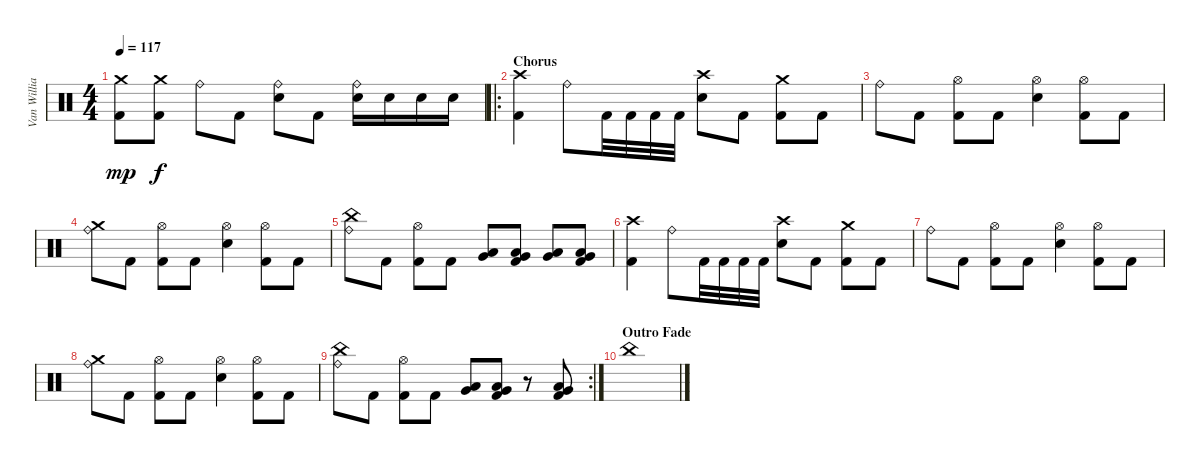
\track ("Van Williams" "Van Willia") {instrument percussion}
\staff {score}
\articulation defaults
\ts (4 4)
\tempo 117
\clef neutral
\ks c
("Crash medium (hit)" "Kick (hit) 2").8{dy mp} ("Crash medium (hit)" "Kick (hit) 2").8{dy f} "Ride (bell)".8 "Kick (hit) 2".8 ("Ride (bell)" "Electric Snare (hit)").8 "Kick (hit) 2".8 ("Ride (bell)" "Electric Snare (hit)").16 "Electric Snare (hit)".16 "Electric Snare (hit)".16 "Electric Snare (hit)".16 |
\ro
\section ("" "Chorus")
("Crash high (hit)" "Kick (hit) 2").4 "Ride (bell)".8 "Kick (hit) 2".32 "Kick (hit) 2".32 "Kick (hit) 2".32 "Kick (hit) 2".32 ("Crash high (hit)" "Electric Snare (hit)").8 "Kick (hit) 2".8 ("Crash medium (hit)" "Kick (hit) 2").8 "Kick (hit) 2".8 |
"Ride (bell)".8 "Kick (hit) 2".8 ("Hi-Hat (open)" "Kick (hit) 2").8 "Kick (hit) 2".8 ("Hi-Hat (open)" "Electric Snare (hit)").4 ("Hi-Hat (open)" "Kick (hit) 2").8 "Kick (hit) 2".8 |
("Ride (bell)" "Crash medium (hit)").8 "Kick (hit) 2".8 ("Hi-Hat (open)" "Kick (hit) 2").8 "Kick (hit) 2".8 ("Hi-Hat (open)" "Electric Snare (hit)").4 ("Hi-Hat (open)" "Kick (hit) 2").8 "Kick (hit) 2".8 |
("Ride (bell)" "China (hit)").8 "Kick (hit) 2".8 ("Hi-Hat (open)" "Kick (hit) 2").8 "Kick (hit) 2".8 ("Low Floor Tom (hit)" "Very Low Tom (hit)").8 ("Low Floor Tom (hit)" "Very Low Tom (hit)" "Kick (hit) 2").8 ("Low Floor Tom (hit)" "Very Low Tom (hit)").8 ("Low Floor Tom (hit)" "Very Low Tom (hit)" "Kick (hit) 2").8 |
("Crash high (hit)" "Kick (hit) 2").4 "Ride (bell)".8 "Kick (hit) 2".32 "Kick (hit) 2".32 "Kick (hit) 2".32 "Kick (hit) 2".32 ("Crash high (hit)" "Electric Snare (hit)").8 "Kick (hit) 2".8 ("Crash medium (hit)" "Kick (hit) 2").8 "Kick (hit) 2".8 |
"Ride (bell)".8 "Kick (hit) 2".8 ("Hi-Hat (open)" "Kick (hit) 2").8 "Kick (hit) 2".8 ("Hi-Hat (open)" "Electric Snare (hit)").4 ("Hi-Hat (open)" "Kick (hit) 2").8 "Kick (hit) 2".8 |
("Ride (bell)" "Crash medium (hit)").8 "Kick (hit) 2".8 ("Hi-Hat (open)" "Kick (hit) 2").8 "Kick (hit) 2".8 ("Hi-Hat (open)" "Electric Snare (hit)").4 ("Hi-Hat (open)" "Kick (hit) 2").8 "Kick (hit) 2".8 |
\rc 2
("Ride (bell)" "China (hit)").8 "Kick (hit) 2".8 ("Hi-Hat (open)" "Kick (hit) 2").8 "Kick (hit) 2".8 ("Low Floor Tom (hit)" "Very Low Tom (hit)").8 ("Low Floor Tom (hit)" "Very Low Tom (hit)" "Kick (hit) 2").8 r.8 ("Low Floor Tom (hit)" "Very Low Tom (hit)" "Kick (hit) 2").8 |
\section ("" "Outro Fade")
"China (hit)".1
